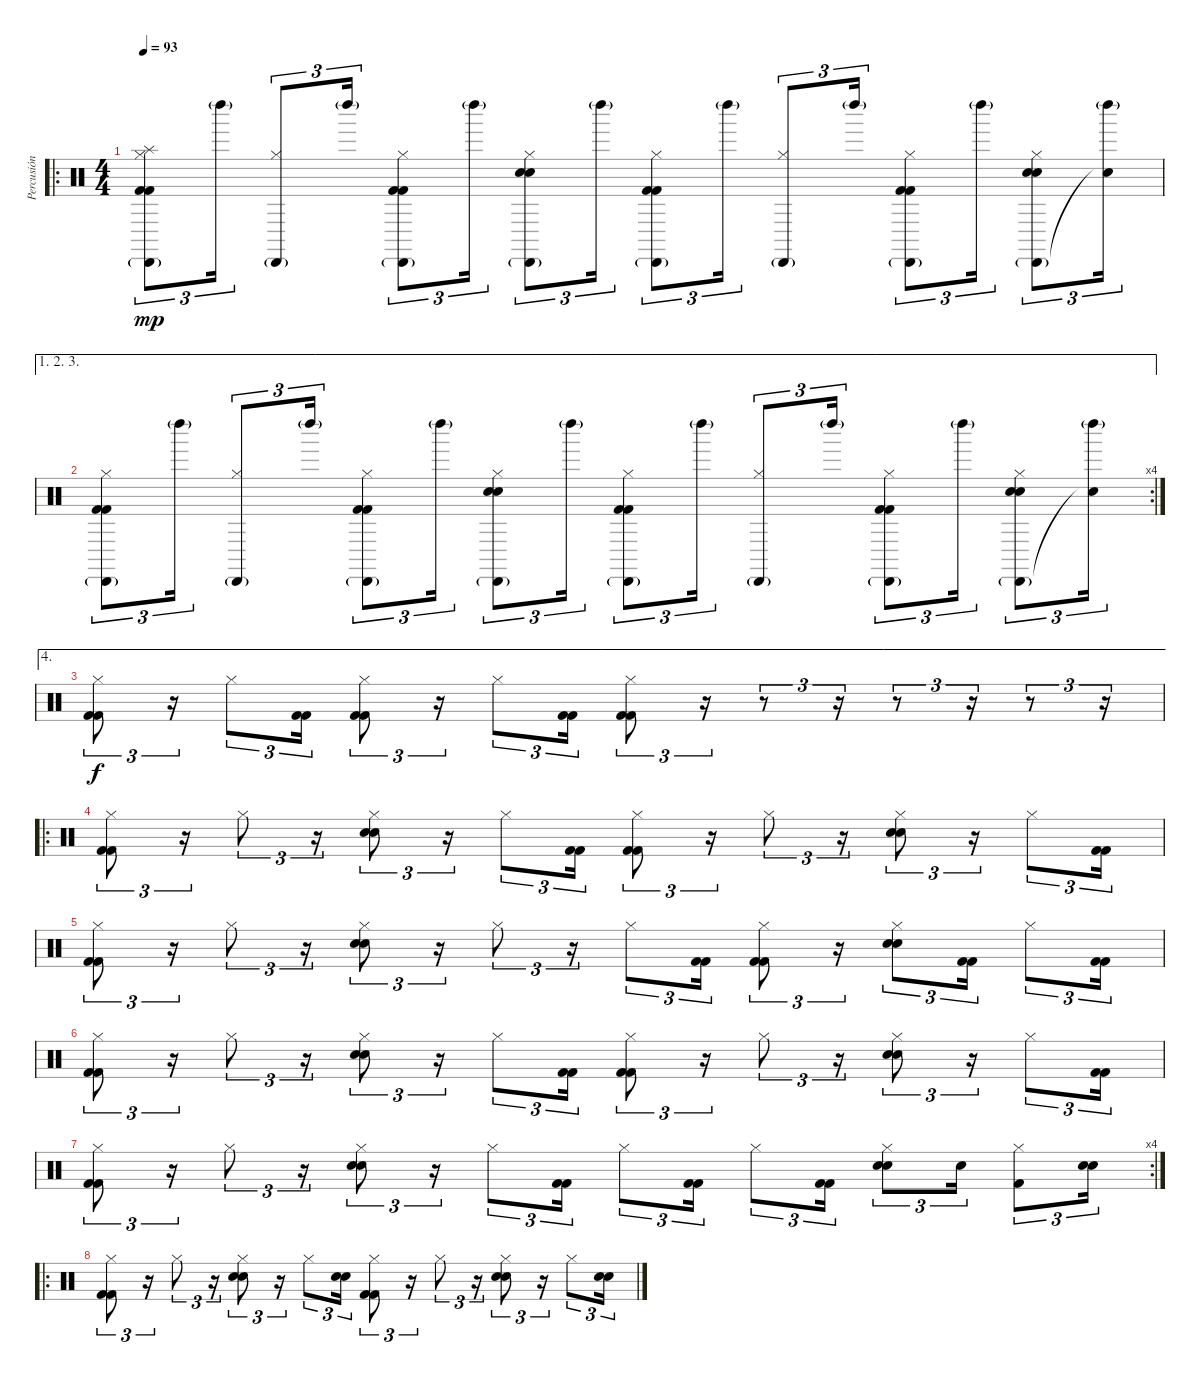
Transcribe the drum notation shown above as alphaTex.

\track ("Percusión" "Percusión") {instrument percussion}
\staff {score}
\articulation defaults
\ro
\ts (4 4)
\tempo 93
\clef neutral
\ks c
("Hi-Hat (closed)" "Cabasa (hit)"{g} "Kick (hit) 2" "Kick (hit) 2" "Splash (hit)").8{tu (3 2) dy mp} "Left Maraca (hit)"{g}.16{tu (3 2)} ("Hi-Hat (closed)" "Cabasa (hit)"{g}).8{tu (3 2)} "Left Maraca (hit)"{g}.16{tu (3 2)} ("Hi-Hat (closed)" "Cabasa (hit)"{g} "Kick (hit) 2" "Kick (hit) 2").8{tu (3 2)} "Left Maraca (hit)"{g}.16{tu (3 2)} ("Hi-Hat (closed)" "Cabasa (hit)"{g} "Electric Snare (hit)" "Electric Snare (hit)").8{tu (3 2)} "Left Maraca (hit)"{g}.16{tu (3 2)} ("Hi-Hat (closed)" "Cabasa (hit)"{g} "Kick (hit) 2" "Kick (hit) 2").8{tu (3 2)} "Left Maraca (hit)"{g}.16{tu (3 2)} ("Hi-Hat (closed)" "Cabasa (hit)"{g}).8{tu (3 2)} "Left Maraca (hit)"{g}.16{tu (3 2)} ("Hi-Hat (closed)" "Cabasa (hit)"{g} "Kick (hit) 2" "Kick (hit) 2").8{tu (3 2)} "Left Maraca (hit)"{g}.16{tu (3 2)} ("Hi-Hat (closed)" "Cabasa (hit)"{g} "Electric Snare (hit)" "Electric Snare (hit)").8{tu (3 2)} ("Left Maraca (hit)"{g} "Snare (hit)"{t}).16{tu (3 2)} |
\ae (1 2 3)
\rc 4
("Hi-Hat (closed)" "Cabasa (hit)"{g} "Kick (hit) 2" "Kick (hit) 2").8{tu (3 2)} "Left Maraca (hit)"{g}.16{tu (3 2)} ("Hi-Hat (closed)" "Cabasa (hit)"{g}).8{tu (3 2)} "Left Maraca (hit)"{g}.16{tu (3 2)} ("Hi-Hat (closed)" "Cabasa (hit)"{g} "Kick (hit) 2" "Kick (hit) 2").8{tu (3 2)} "Left Maraca (hit)"{g}.16{tu (3 2)} ("Hi-Hat (closed)" "Cabasa (hit)"{g} "Electric Snare (hit)" "Electric Snare (hit)").8{tu (3 2)} "Left Maraca (hit)"{g}.16{tu (3 2)} ("Hi-Hat (closed)" "Cabasa (hit)"{g} "Kick (hit) 2" "Kick (hit) 2").8{tu (3 2)} "Left Maraca (hit)"{g}.16{tu (3 2)} ("Hi-Hat (closed)" "Cabasa (hit)"{g}).8{tu (3 2)} "Left Maraca (hit)"{g}.16{tu (3 2)} ("Hi-Hat (closed)" "Cabasa (hit)"{g} "Kick (hit) 2" "Kick (hit) 2").8{tu (3 2)} "Left Maraca (hit)"{g}.16{tu (3 2)} ("Hi-Hat (closed)" "Cabasa (hit)"{g} "Electric Snare (hit)" "Electric Snare (hit)").8{tu (3 2)} ("Left Maraca (hit)"{g} "Snare (hit)"{t}).16{tu (3 2)} |
\ae 4
("Hi-Hat (closed)" "Kick (hit) 2" "Kick (hit) 2").8{tu (3 2) dy f} r.16{tu (3 2)} "Hi-Hat (closed)".8{tu (3 2)} ("Kick (hit) 2" "Kick (hit) 2").16{tu (3 2)} ("Hi-Hat (closed)" "Kick (hit) 2" "Kick (hit) 2").8{tu (3 2)} r.16{tu (3 2)} "Hi-Hat (closed)".8{tu (3 2)} ("Kick (hit) 2" "Kick (hit) 2").16{tu (3 2)} ("Hi-Hat (closed)" "Kick (hit) 2" "Kick (hit) 2").8{tu (3 2)} r.16{tu (3 2)} r.8{tu (3 2)} r.16{tu (3 2)} r.8{tu (3 2)} r.16{tu (3 2)} r.8{tu (3 2)} r.16{tu (3 2)} |
\ro
("Hi-Hat (closed)" "Kick (hit) 2" "Kick (hit) 2").8{tu (3 2)} r.16{tu (3 2)} "Hi-Hat (closed)".8{tu (3 2)} r.16{tu (3 2)} ("Hi-Hat (closed)" "Hand Clap (hit)" "Hand Clap (hit)").8{tu (3 2)} r.16{tu (3 2)} "Hi-Hat (closed)".8{tu (3 2)} ("Kick (hit) 2" "Kick (hit) 2").16{tu (3 2)} ("Hi-Hat (closed)" "Kick (hit) 2" "Kick (hit) 2").8{tu (3 2)} r.16{tu (3 2)} "Hi-Hat (closed)".8{tu (3 2)} r.16{tu (3 2)} ("Hi-Hat (closed)" "Hand Clap (hit)" "Hand Clap (hit)").8{tu (3 2)} r.16{tu (3 2)} "Hi-Hat (closed)".8{tu (3 2)} ("Kick (hit) 2" "Kick (hit) 2").16{tu (3 2)} |
("Hi-Hat (closed)" "Kick (hit) 2" "Kick (hit) 2").8{tu (3 2)} r.16{tu (3 2)} "Hi-Hat (closed)".8{tu (3 2)} r.16{tu (3 2)} ("Hi-Hat (closed)" "Hand Clap (hit)" "Hand Clap (hit)").8{tu (3 2)} r.16{tu (3 2)} "Hi-Hat (closed)".8{tu (3 2)} r.16{tu (3 2)} "Hi-Hat (closed)".8{tu (3 2)} ("Kick (hit) 2" "Kick (hit) 2").16{tu (3 2)} ("Hi-Hat (closed)" "Kick (hit) 2" "Kick (hit) 2").8{tu (3 2)} r.16{tu (3 2)} ("Hi-Hat (closed)" "Hand Clap (hit)" "Hand Clap (hit)").8{tu (3 2)} ("Kick (hit) 2" "Kick (hit) 2").16{tu (3 2)} "Hi-Hat (closed)".8{tu (3 2)} ("Kick (hit) 2" "Kick (hit) 2").16{tu (3 2)} |
("Hi-Hat (closed)" "Kick (hit) 2" "Kick (hit) 2").8{tu (3 2)} r.16{tu (3 2)} "Hi-Hat (closed)".8{tu (3 2)} r.16{tu (3 2)} ("Hi-Hat (closed)" "Hand Clap (hit)" "Hand Clap (hit)").8{tu (3 2)} r.16{tu (3 2)} "Hi-Hat (closed)".8{tu (3 2)} ("Kick (hit) 2" "Kick (hit) 2").16{tu (3 2)} ("Hi-Hat (closed)" "Kick (hit) 2" "Kick (hit) 2").8{tu (3 2)} r.16{tu (3 2)} "Hi-Hat (closed)".8{tu (3 2)} r.16{tu (3 2)} ("Hi-Hat (closed)" "Hand Clap (hit)" "Hand Clap (hit)").8{tu (3 2)} r.16{tu (3 2)} "Hi-Hat (closed)".8{tu (3 2)} ("Kick (hit) 2" "Kick (hit) 2").16{tu (3 2)} |
\rc 4
("Hi-Hat (closed)" "Kick (hit) 2" "Kick (hit) 2").8{tu (3 2)} r.16{tu (3 2)} "Hi-Hat (closed)".8{tu (3 2)} r.16{tu (3 2)} ("Hi-Hat (closed)" "Hand Clap (hit)" "Hand Clap (hit)").8{tu (3 2)} r.16{tu (3 2)} "Hi-Hat (closed)".8{tu (3 2)} ("Kick (hit) 2" "Kick (hit) 2").16{tu (3 2)} "Hi-Hat (closed)".8{tu (3 2)} ("Kick (hit) 2" "Kick (hit) 2").16{tu (3 2)} "Hi-Hat (closed)".8{tu (3 2)} ("Kick (hit) 2" "Kick (hit) 2").16{tu (3 2)} ("Hi-Hat (closed)" "Hand Clap (hit)" "Hand Clap (hit)").8{tu (3 2)} "Electric Snare (hit)".16{tu (3 2)} ("Hi-Hat (closed)" "Kick (hit) 2").8{tu (3 2)} ("Hand Clap (hit)" "Hand Clap (hit)").16{tu (3 2)} |
\ro
("Hi-Hat (closed)" "Kick (hit) 2" "Kick (hit) 2").8{tu (3 2)} r.16{tu (3 2)} "Hi-Hat (closed)".8{tu (3 2)} r.16{tu (3 2)} ("Hi-Hat (closed)" "Electric Snare (hit)" "Electric Snare (hit)").8{tu (3 2)} r.16{tu (3 2)} "Hi-Hat (closed)".8{tu (3 2)} ("Electric Snare (hit)" "Electric Snare (hit)").16{tu (3 2)} ("Hi-Hat (closed)" "Kick (hit) 2" "Kick (hit) 2").8{tu (3 2)} r.16{tu (3 2)} "Hi-Hat (closed)".8{tu (3 2)} r.16{tu (3 2)} ("Hi-Hat (closed)" "Electric Snare (hit)" "Electric Snare (hit)").8{tu (3 2)} r.16{tu (3 2)} "Hi-Hat (closed)".8{tu (3 2)} ("Electric Snare (hit)" "Electric Snare (hit)").16{tu (3 2)}
